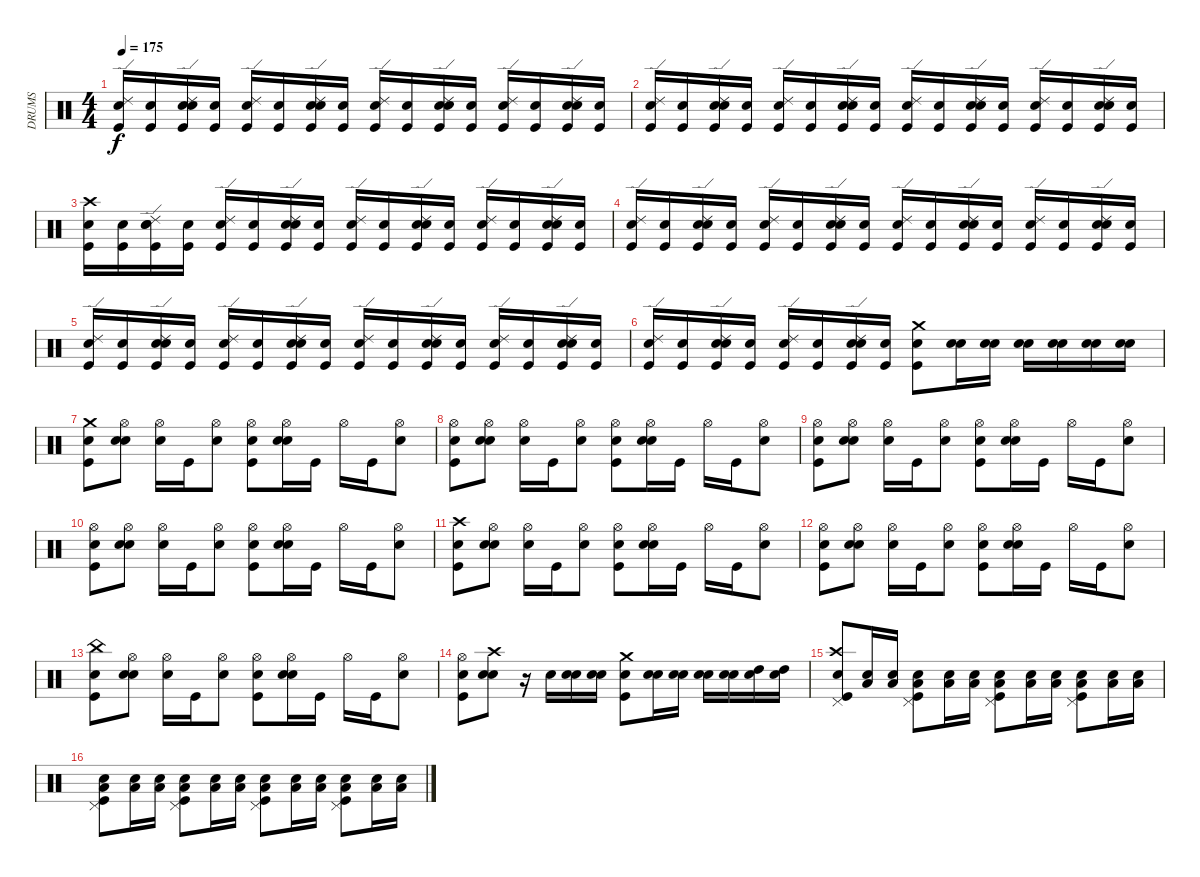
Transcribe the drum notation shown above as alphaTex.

\track ("DRUMS" "DRUMS") {instrument percussion}
\staff {score}
\articulation defaults
\ts (4 4)
\tempo 175
\clef neutral
\ks c
("Snare (hit)" "Ride (edge) 2" "Kick (hit)").16{dy f} ("Snare (hit)" "Kick (hit)").16 ("Snare (hit)" "Ride (edge) 2" "Snare (hit) 2" "Kick (hit)").16 ("Snare (hit)" "Kick (hit)").16 ("Snare (hit)" "Ride (edge) 2" "Kick (hit)").16 ("Snare (hit)" "Kick (hit)").16 ("Snare (hit)" "Ride (edge) 2" "Snare (hit) 2" "Kick (hit)").16 ("Snare (hit)" "Kick (hit)").16 ("Snare (hit)" "Ride (edge) 2" "Kick (hit)").16 ("Snare (hit)" "Kick (hit)").16 ("Snare (hit)" "Ride (edge) 2" "Snare (hit) 2" "Kick (hit)").16 ("Snare (hit)" "Kick (hit)").16 ("Snare (hit)" "Ride (edge) 2" "Kick (hit)").16 ("Snare (hit)" "Kick (hit)").16 ("Snare (hit)" "Ride (edge) 2" "Snare (hit) 2" "Kick (hit)").16 ("Snare (hit)" "Kick (hit)").16 |
("Snare (hit)" "Ride (edge) 2" "Kick (hit)").16 ("Snare (hit)" "Kick (hit)").16 ("Snare (hit)" "Ride (edge) 2" "Snare (hit) 2" "Kick (hit)").16 ("Snare (hit)" "Kick (hit)").16 ("Snare (hit)" "Ride (edge) 2" "Kick (hit)").16 ("Snare (hit)" "Kick (hit)").16 ("Snare (hit)" "Ride (edge) 2" "Snare (hit) 2" "Kick (hit)").16 ("Snare (hit)" "Kick (hit)").16 ("Snare (hit)" "Ride (edge) 2" "Kick (hit)").16 ("Snare (hit)" "Kick (hit)").16 ("Snare (hit)" "Ride (edge) 2" "Snare (hit) 2" "Kick (hit)").16 ("Snare (hit)" "Kick (hit)").16 ("Snare (hit)" "Ride (edge) 2" "Kick (hit)").16 ("Snare (hit)" "Kick (hit)").16 ("Snare (hit)" "Ride (edge) 2" "Snare (hit) 2" "Kick (hit)").16 ("Snare (hit)" "Kick (hit)").16 |
("Snare (hit)" "Crash high (hit)" "Kick (hit)").16 ("Snare (hit)" "Kick (hit)").16 ("Snare (hit)" "Ride (edge) 2" "Snare (hit) 2" "Kick (hit)").16 ("Snare (hit)" "Kick (hit)").16 ("Snare (hit)" "Ride (edge) 2" "Kick (hit)").16 ("Snare (hit)" "Kick (hit)").16 ("Snare (hit)" "Ride (edge) 2" "Snare (hit) 2" "Kick (hit)").16 ("Snare (hit)" "Kick (hit)").16 ("Snare (hit)" "Ride (edge) 2" "Kick (hit)").16 ("Snare (hit)" "Kick (hit)").16 ("Snare (hit)" "Ride (edge) 2" "Snare (hit) 2" "Kick (hit)").16 ("Snare (hit)" "Kick (hit)").16 ("Snare (hit)" "Ride (edge) 2" "Kick (hit)").16 ("Snare (hit)" "Kick (hit)").16 ("Snare (hit)" "Ride (edge) 2" "Snare (hit) 2" "Kick (hit)").16 ("Snare (hit)" "Kick (hit)").16 |
("Snare (hit)" "Ride (edge) 2" "Kick (hit)").16 ("Snare (hit)" "Kick (hit)").16 ("Snare (hit)" "Ride (edge) 2" "Snare (hit) 2" "Kick (hit)").16 ("Snare (hit)" "Kick (hit)").16 ("Snare (hit)" "Ride (edge) 2" "Kick (hit)").16 ("Snare (hit)" "Kick (hit)").16 ("Snare (hit)" "Ride (edge) 2" "Snare (hit) 2" "Kick (hit)").16 ("Snare (hit)" "Kick (hit)").16 ("Snare (hit)" "Ride (edge) 2" "Kick (hit)").16 ("Snare (hit)" "Kick (hit)").16 ("Snare (hit)" "Ride (edge) 2" "Snare (hit) 2" "Kick (hit)").16 ("Snare (hit)" "Kick (hit)").16 ("Snare (hit)" "Ride (edge) 2" "Kick (hit)").16 ("Snare (hit)" "Kick (hit)").16 ("Snare (hit)" "Ride (edge) 2" "Snare (hit) 2" "Kick (hit)").16 ("Snare (hit)" "Kick (hit)").16 |
("Snare (hit)" "Ride (edge) 2" "Kick (hit)").16 ("Snare (hit)" "Kick (hit)").16 ("Snare (hit)" "Ride (edge) 2" "Snare (hit) 2" "Kick (hit)").16 ("Snare (hit)" "Kick (hit)").16 ("Snare (hit)" "Ride (edge) 2" "Kick (hit)").16 ("Snare (hit)" "Kick (hit)").16 ("Snare (hit)" "Ride (edge) 2" "Snare (hit) 2" "Kick (hit)").16 ("Snare (hit)" "Kick (hit)").16 ("Snare (hit)" "Ride (edge) 2" "Kick (hit)").16 ("Snare (hit)" "Kick (hit)").16 ("Snare (hit)" "Ride (edge) 2" "Snare (hit) 2" "Kick (hit)").16 ("Snare (hit)" "Kick (hit)").16 ("Snare (hit)" "Ride (edge) 2" "Kick (hit)").16 ("Snare (hit)" "Kick (hit)").16 ("Snare (hit)" "Ride (edge) 2" "Snare (hit) 2" "Kick (hit)").16 ("Snare (hit)" "Kick (hit)").16 |
("Snare (hit)" "Ride (edge) 2" "Kick (hit)").16 ("Snare (hit)" "Kick (hit)").16 ("Snare (hit)" "Ride (edge) 2" "Snare (hit) 2" "Kick (hit)").16 ("Snare (hit)" "Kick (hit)").16 ("Snare (hit)" "Ride (edge) 2" "Kick (hit)").16 ("Snare (hit)" "Kick (hit)").16 ("Snare (hit)" "Ride (edge) 2" "Snare (hit) 2" "Kick (hit)").16 ("Snare (hit)" "Kick (hit)").16 ("Snare (hit)" "Crash medium (hit)" "Kick (hit)").8 ("Snare (hit)" "Snare (hit) 2").16 ("Snare (hit)" "Snare (hit) 2").16 ("Snare (hit)" "Snare (hit) 2").16 ("Snare (hit)" "Snare (hit) 2").16 ("Snare (hit)" "Snare (hit) 2").16 ("Snare (hit)" "Snare (hit) 2").16 |
("Snare (hit)" "Crash medium (hit)" "Kick (hit)").8 ("Snare (hit)" "Hi-Hat (open)" "Snare (hit) 2").8 ("Snare (hit)" "Hi-Hat (open)").16 "Kick (hit)".16 ("Hi-Hat (open)" "Snare (hit) 2").8 ("Snare (hit)" "Hi-Hat (open)" "Kick (hit)").8 ("Snare (hit)" "Hi-Hat (open)" "Snare (hit) 2").16 "Kick (hit)".16 "Hi-Hat (open)".16 "Kick (hit)".16 ("Hi-Hat (open)" "Snare (hit) 2").8 |
("Snare (hit)" "Kick (hit)" "Hi-Hat (open)").8 ("Snare (hit)" "Snare (hit) 2" "Hi-Hat (open)").8 ("Snare (hit)" "Hi-Hat (open)").16 "Kick (hit)".16 ("Snare (hit) 2" "Hi-Hat (open)").8 ("Snare (hit)" "Kick (hit)" "Hi-Hat (open)").8 ("Snare (hit)" "Snare (hit) 2" "Hi-Hat (open)").16 "Kick (hit)".16 "Hi-Hat (open)".16 "Kick (hit)".16 ("Snare (hit) 2" "Hi-Hat (open)").8 |
("Snare (hit)" "Kick (hit)" "Hi-Hat (open)").8 ("Snare (hit)" "Snare (hit) 2" "Hi-Hat (open)").8 ("Snare (hit)" "Hi-Hat (open)").16 "Kick (hit)".16 ("Snare (hit) 2" "Hi-Hat (open)").8 ("Snare (hit)" "Kick (hit)" "Hi-Hat (open)").8 ("Snare (hit)" "Snare (hit) 2" "Hi-Hat (open)").16 "Kick (hit)".16 "Hi-Hat (open)".16 "Kick (hit)".16 ("Snare (hit) 2" "Hi-Hat (open)").8 |
("Snare (hit)" "Kick (hit)" "Hi-Hat (open)").8 ("Snare (hit)" "Snare (hit) 2" "Hi-Hat (open)").8 ("Snare (hit)" "Hi-Hat (open)").16 "Kick (hit)".16 ("Snare (hit) 2" "Hi-Hat (open)").8 ("Snare (hit)" "Kick (hit)" "Hi-Hat (open)").8 ("Snare (hit)" "Snare (hit) 2" "Hi-Hat (open)").16 "Kick (hit)".16 "Hi-Hat (open)".16 "Kick (hit)".16 ("Snare (hit) 2" "Hi-Hat (open)").8 |
("Snare (hit)" "Kick (hit)" "Crash high (hit)").8 ("Snare (hit)" "Snare (hit) 2" "Hi-Hat (open)").8 ("Snare (hit)" "Hi-Hat (open)").16 "Kick (hit)".16 ("Snare (hit) 2" "Hi-Hat (open)").8 ("Snare (hit)" "Kick (hit)" "Hi-Hat (open)").8 ("Snare (hit)" "Snare (hit) 2" "Hi-Hat (open)").16 "Kick (hit)".16 "Hi-Hat (open)".16 "Kick (hit)".16 ("Snare (hit) 2" "Hi-Hat (open)").8 |
("Snare (hit)" "Hi-Hat (open)" "Kick (hit)").8 ("Snare (hit)" "Hi-Hat (open)" "Snare (hit) 2").8 ("Snare (hit)" "Hi-Hat (open)").16 "Kick (hit)".16 ("Hi-Hat (open)" "Snare (hit) 2").8 ("Snare (hit)" "Hi-Hat (open)" "Kick (hit)").8 ("Snare (hit)" "Hi-Hat (open)" "Snare (hit) 2").16 "Kick (hit)".16 "Hi-Hat (open)".16 "Kick (hit)".16 ("Hi-Hat (open)" "Snare (hit) 2").8 |
("Snare (hit)" "China (hit)" "Kick (hit)").8 ("Snare (hit)" "Hi-Hat (open)" "Snare (hit) 2").8 ("Snare (hit)" "Hi-Hat (open)").16 "Kick (hit)".16 ("Hi-Hat (open)" "Snare (hit) 2").8 ("Snare (hit)" "Hi-Hat (open)" "Kick (hit)").8 ("Snare (hit)" "Hi-Hat (open)" "Snare (hit) 2").16 "Kick (hit)".16 "Hi-Hat (open)".16 "Kick (hit)".16 ("Hi-Hat (open)" "Snare (hit) 2").8 |
("Snare (hit)" "Kick (hit)" "Hi-Hat (open)").8 ("Snare (hit)" "Snare (hit) 2" "Crash high (hit)").8 r.16 "Snare (hit) 2".16 ("Snare (hit)" "Snare (hit) 2").16 ("Snare (hit)" "Snare (hit) 2").16 ("Snare (hit)" "Kick (hit)" "Crash medium (hit)").8 ("Snare (hit)" "Snare (hit) 2").16 ("Snare (hit)" "Snare (hit) 2").16 ("Snare (hit)" "Snare (hit) 2").16 ("Snare (hit)" "Snare (hit) 2").16 ("Snare (hit)" "High Tom (hit)").16 ("Snare (hit)" "High Tom (hit)").16 |
("Snare (hit)" "Pedal Hi-Hat (hit)" "Crash high (hit)" "Kick (hit)").8 ("Snare (hit)" "Low Tom (hit)").16 ("Snare (hit)" "Low Tom (hit)").16 ("Snare (hit)" "Pedal Hi-Hat (hit)" "Low Tom (hit)" "Kick (hit)").8 ("Snare (hit)" "Low Tom (hit)").16 ("Snare (hit)" "Low Tom (hit)").16 ("Snare (hit)" "Pedal Hi-Hat (hit)" "Low Tom (hit)" "Kick (hit)").8 ("Snare (hit)" "Low Tom (hit)").16 ("Snare (hit)" "Low Tom (hit)").16 ("Snare (hit)" "Pedal Hi-Hat (hit)" "Low Tom (hit)" "Kick (hit)").8 ("Snare (hit)" "Low Tom (hit)").16 ("Snare (hit)" "Low Tom (hit)").16 |
("Snare (hit)" "Pedal Hi-Hat (hit)" "Kick (hit)" "Low Tom (hit)").8 ("Snare (hit)" "Low Tom (hit)").16 ("Snare (hit)" "Low Tom (hit)").16 ("Snare (hit)" "Pedal Hi-Hat (hit)" "Kick (hit)" "Low Tom (hit)").8 ("Snare (hit)" "Low Tom (hit)").16 ("Snare (hit)" "Low Tom (hit)").16 ("Snare (hit)" "Pedal Hi-Hat (hit)" "Kick (hit)" "Low Tom (hit)").8 ("Snare (hit)" "Low Tom (hit)").16 ("Snare (hit)" "Low Tom (hit)").16 ("Snare (hit)" "Pedal Hi-Hat (hit)" "Kick (hit)" "Low Tom (hit)").8 ("Snare (hit)" "Low Tom (hit)").16 ("Snare (hit)" "Low Tom (hit)").16
